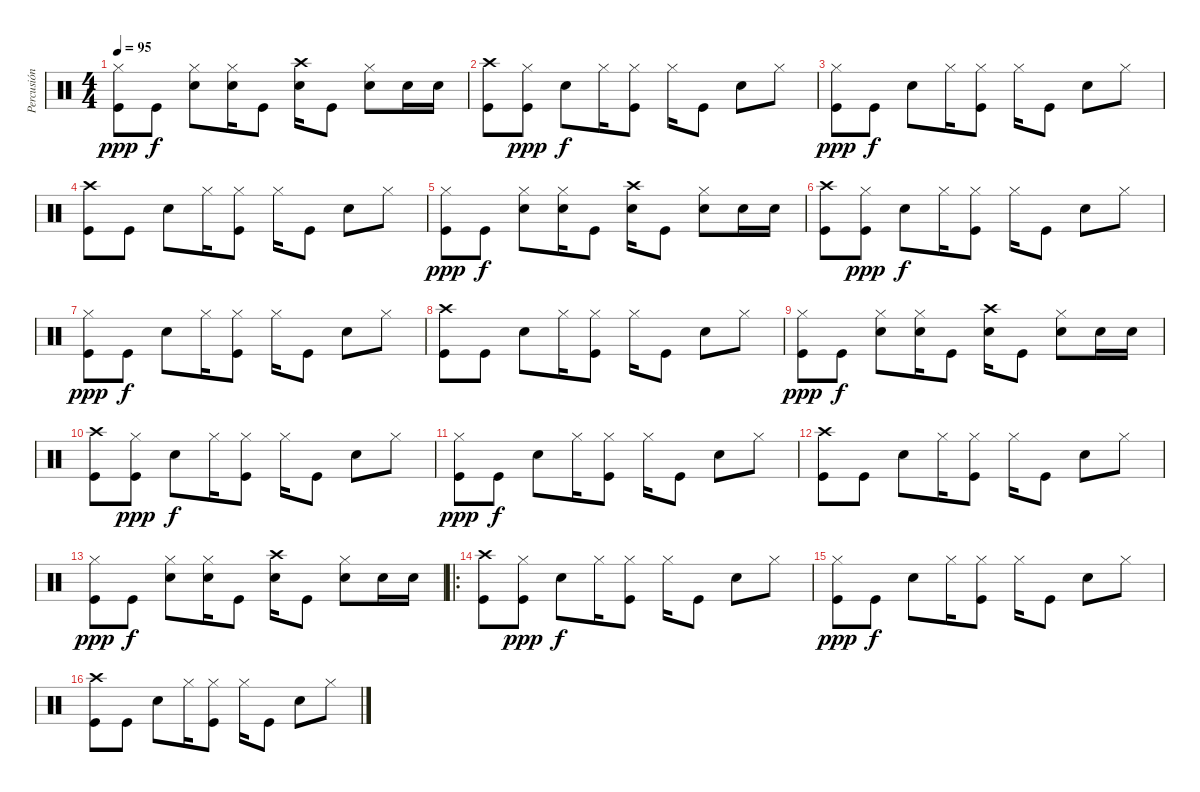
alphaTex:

\track ("Percusión" "Percusión") {instrument percussion}
\staff {score}
\articulation defaults
\ts (4 4)
\tempo 95
\clef neutral
\ks c
("Kick (hit)" "Hi-Hat (closed)").8{dy ppp} "Kick (hit)".8{dy f} ("Snare (hit) 2" "Hi-Hat (closed)").8 ("Snare (hit) 2" "Hi-Hat (closed)").16 "Kick (hit)".8 ("Snare (hit) 2" "Crash high (hit)").16 "Kick (hit)".8 ("Snare (hit) 2" "Hi-Hat (closed)").8 "Snare (hit) 2".16 "Snare (hit) 2".16 |
("Kick (hit)" "Crash high (hit)").8 ("Kick (hit)" "Hi-Hat (closed)").8{dy ppp} "Snare (hit) 2".8{dy f} "Hi-Hat (closed)".16 ("Kick (hit)" "Hi-Hat (closed)").8 "Hi-Hat (closed)".16 "Kick (hit)".8 "Snare (hit) 2".8 "Hi-Hat (closed)".8 |
("Kick (hit)" "Hi-Hat (closed)").8{dy ppp} "Kick (hit)".8{dy f} "Snare (hit) 2".8 "Hi-Hat (closed)".16 ("Kick (hit)" "Hi-Hat (closed)").8 "Hi-Hat (closed)".16 "Kick (hit)".8 "Snare (hit) 2".8 "Hi-Hat (closed)".8 |
("Kick (hit)" "Crash high (hit)").8 "Kick (hit)".8 "Snare (hit) 2".8 "Hi-Hat (closed)".16 ("Kick (hit)" "Hi-Hat (closed)").8 "Hi-Hat (closed)".16 "Kick (hit)".8 "Snare (hit) 2".8 "Hi-Hat (closed)".8 |
("Kick (hit)" "Hi-Hat (closed)").8{dy ppp} "Kick (hit)".8{dy f} ("Snare (hit) 2" "Hi-Hat (closed)").8 ("Snare (hit) 2" "Hi-Hat (closed)").16 "Kick (hit)".8 ("Snare (hit) 2" "Crash high (hit)").16 "Kick (hit)".8 ("Snare (hit) 2" "Hi-Hat (closed)").8 "Snare (hit) 2".16 "Snare (hit) 2".16 |
("Kick (hit)" "Crash high (hit)").8 ("Kick (hit)" "Hi-Hat (closed)").8{dy ppp} "Snare (hit) 2".8{dy f} "Hi-Hat (closed)".16 ("Kick (hit)" "Hi-Hat (closed)").8 "Hi-Hat (closed)".16 "Kick (hit)".8 "Snare (hit) 2".8 "Hi-Hat (closed)".8 |
("Kick (hit)" "Hi-Hat (closed)").8{dy ppp} "Kick (hit)".8{dy f} "Snare (hit) 2".8 "Hi-Hat (closed)".16 ("Kick (hit)" "Hi-Hat (closed)").8 "Hi-Hat (closed)".16 "Kick (hit)".8 "Snare (hit) 2".8 "Hi-Hat (closed)".8 |
("Kick (hit)" "Crash high (hit)").8 "Kick (hit)".8 "Snare (hit) 2".8 "Hi-Hat (closed)".16 ("Kick (hit)" "Hi-Hat (closed)").8 "Hi-Hat (closed)".16 "Kick (hit)".8 "Snare (hit) 2".8 "Hi-Hat (closed)".8 |
("Kick (hit)" "Hi-Hat (closed)").8{dy ppp} "Kick (hit)".8{dy f} ("Snare (hit) 2" "Hi-Hat (closed)").8 ("Snare (hit) 2" "Hi-Hat (closed)").16 "Kick (hit)".8 ("Snare (hit) 2" "Crash high (hit)").16 "Kick (hit)".8 ("Snare (hit) 2" "Hi-Hat (closed)").8 "Snare (hit) 2".16 "Snare (hit) 2".16 |
("Kick (hit)" "Crash high (hit)").8 ("Kick (hit)" "Hi-Hat (closed)").8{dy ppp} "Snare (hit) 2".8{dy f} "Hi-Hat (closed)".16 ("Kick (hit)" "Hi-Hat (closed)").8 "Hi-Hat (closed)".16 "Kick (hit)".8 "Snare (hit) 2".8 "Hi-Hat (closed)".8 |
("Kick (hit)" "Hi-Hat (closed)").8{dy ppp} "Kick (hit)".8{dy f} "Snare (hit) 2".8 "Hi-Hat (closed)".16 ("Kick (hit)" "Hi-Hat (closed)").8 "Hi-Hat (closed)".16 "Kick (hit)".8 "Snare (hit) 2".8 "Hi-Hat (closed)".8 |
("Kick (hit)" "Crash high (hit)").8 "Kick (hit)".8 "Snare (hit) 2".8 "Hi-Hat (closed)".16 ("Kick (hit)" "Hi-Hat (closed)").8 "Hi-Hat (closed)".16 "Kick (hit)".8 "Snare (hit) 2".8 "Hi-Hat (closed)".8 |
("Kick (hit)" "Hi-Hat (closed)").8{dy ppp} "Kick (hit)".8{dy f} ("Snare (hit) 2" "Hi-Hat (closed)").8 ("Snare (hit) 2" "Hi-Hat (closed)").16 "Kick (hit)".8 ("Snare (hit) 2" "Crash high (hit)").16 "Kick (hit)".8 ("Snare (hit) 2" "Hi-Hat (closed)").8 "Snare (hit) 2".16 "Snare (hit) 2".16 |
\ro
("Kick (hit)" "Crash high (hit)").8 ("Kick (hit)" "Hi-Hat (closed)").8{dy ppp} "Snare (hit) 2".8{dy f} "Hi-Hat (closed)".16 ("Kick (hit)" "Hi-Hat (closed)").8 "Hi-Hat (closed)".16 "Kick (hit)".8 "Snare (hit) 2".8 "Hi-Hat (closed)".8 |
("Kick (hit)" "Hi-Hat (closed)").8{dy ppp} "Kick (hit)".8{dy f} "Snare (hit) 2".8 "Hi-Hat (closed)".16 ("Kick (hit)" "Hi-Hat (closed)").8 "Hi-Hat (closed)".16 "Kick (hit)".8 "Snare (hit) 2".8 "Hi-Hat (closed)".8 |
("Kick (hit)" "Crash high (hit)").8 "Kick (hit)".8 "Snare (hit) 2".8 "Hi-Hat (closed)".16 ("Kick (hit)" "Hi-Hat (closed)").8 "Hi-Hat (closed)".16 "Kick (hit)".8 "Snare (hit) 2".8 "Hi-Hat (closed)".8
